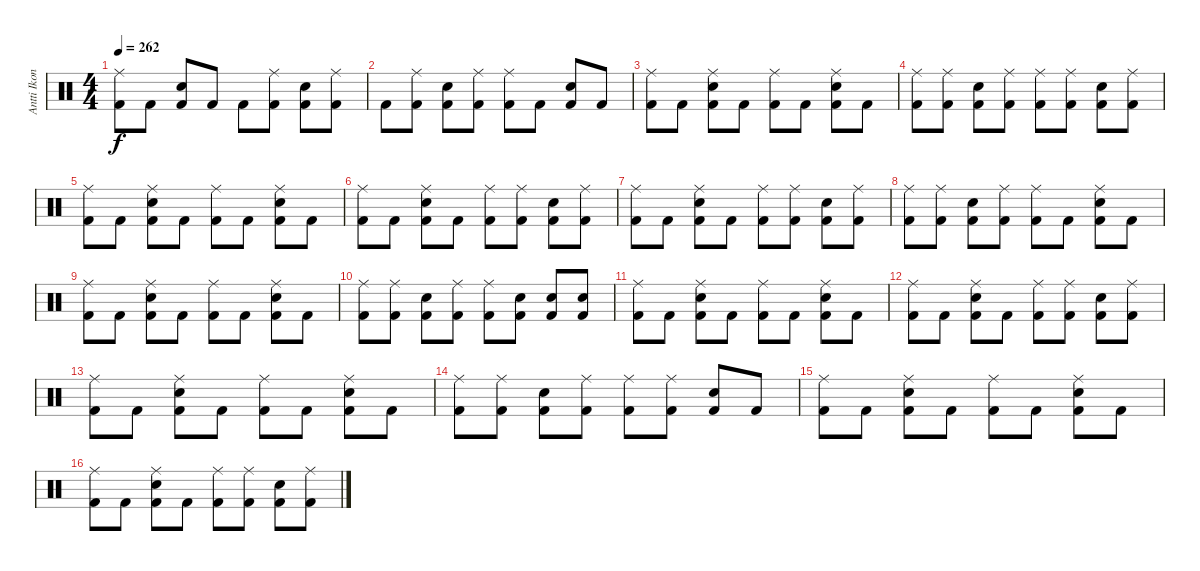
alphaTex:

\track ("Antti Ikonen" "Antti Ikon") {instrument percussion}
\staff {score}
\articulation defaults
\ts (4 4)
\tempo 262
\clef neutral
\ks c
("Ride (middle)" "Kick (hit) 2").8{dy f} "Kick (hit) 2".8 ("Electric Snare (hit)" "Kick (hit) 2").8 "Kick (hit) 2".8 "Kick (hit) 2".8 ("Ride (middle)" "Kick (hit) 2").8 ("Electric Snare (hit)" "Kick (hit) 2").8 ("Ride (middle)" "Kick (hit) 2").8 |
"Kick (hit) 2".8 ("Ride (middle)" "Kick (hit) 2").8 ("Electric Snare (hit)" "Kick (hit) 2").8 ("Ride (middle)" "Kick (hit) 2").8 ("Ride (middle)" "Kick (hit) 2").8 "Kick (hit) 2".8 ("Electric Snare (hit)" "Kick (hit) 2").8 "Kick (hit) 2".8 |
("Ride (middle)" "Kick (hit) 2").8 "Kick (hit) 2".8 ("Ride (middle)" "Electric Snare (hit)" "Kick (hit) 2").8 "Kick (hit) 2".8 ("Ride (middle)" "Kick (hit) 2").8 "Kick (hit) 2".8 ("Ride (middle)" "Electric Snare (hit)" "Kick (hit) 2").8 "Kick (hit) 2".8 |
("Ride (middle)" "Kick (hit) 2").8 ("Ride (middle)" "Kick (hit) 2").8 ("Electric Snare (hit)" "Kick (hit) 2").8 ("Ride (middle)" "Kick (hit) 2").8 ("Ride (middle)" "Kick (hit) 2").8 ("Ride (middle)" "Kick (hit) 2").8 ("Electric Snare (hit)" "Kick (hit) 2").8 ("Ride (middle)" "Kick (hit) 2").8 |
("Ride (middle)" "Kick (hit) 2").8 "Kick (hit) 2".8 ("Ride (middle)" "Electric Snare (hit)" "Kick (hit) 2").8 "Kick (hit) 2".8 ("Ride (middle)" "Kick (hit) 2").8 "Kick (hit) 2".8 ("Ride (middle)" "Electric Snare (hit)" "Kick (hit) 2").8 "Kick (hit) 2".8 |
("Ride (middle)" "Kick (hit) 2").8 "Kick (hit) 2".8 ("Ride (middle)" "Electric Snare (hit)" "Kick (hit) 2").8 "Kick (hit) 2".8 ("Ride (middle)" "Kick (hit) 2").8 ("Ride (middle)" "Kick (hit) 2").8 ("Electric Snare (hit)" "Kick (hit) 2").8 ("Ride (middle)" "Kick (hit) 2").8 |
("Ride (middle)" "Kick (hit) 2").8 "Kick (hit) 2".8 ("Ride (middle)" "Electric Snare (hit)" "Kick (hit) 2").8 "Kick (hit) 2".8 ("Ride (middle)" "Kick (hit) 2").8 ("Ride (middle)" "Kick (hit) 2").8 ("Electric Snare (hit)" "Kick (hit) 2").8 ("Ride (middle)" "Kick (hit) 2").8 |
("Ride (middle)" "Kick (hit) 2").8 ("Ride (middle)" "Kick (hit) 2").8 ("Electric Snare (hit)" "Kick (hit) 2").8 ("Ride (middle)" "Kick (hit) 2").8 ("Ride (middle)" "Kick (hit) 2").8 "Kick (hit) 2".8 ("Ride (middle)" "Electric Snare (hit)" "Kick (hit) 2").8 "Kick (hit) 2".8 |
("Ride (middle)" "Kick (hit) 2").8 "Kick (hit) 2".8 ("Ride (middle)" "Electric Snare (hit)" "Kick (hit) 2").8 "Kick (hit) 2".8 ("Ride (middle)" "Kick (hit) 2").8 "Kick (hit) 2".8 ("Ride (middle)" "Electric Snare (hit)" "Kick (hit) 2").8 "Kick (hit) 2".8 |
("Ride (middle)" "Kick (hit) 2").8 ("Ride (middle)" "Kick (hit) 2").8 ("Electric Snare (hit)" "Kick (hit) 2").8 ("Ride (middle)" "Kick (hit) 2").8 ("Ride (middle)" "Kick (hit) 2").8 ("Electric Snare (hit)" "Kick (hit) 2").8 ("Electric Snare (hit)" "Kick (hit) 2").8 ("Electric Snare (hit)" "Kick (hit) 2").8 |
("Ride (middle)" "Kick (hit) 2").8 "Kick (hit) 2".8 ("Ride (middle)" "Electric Snare (hit)" "Kick (hit) 2").8 "Kick (hit) 2".8 ("Ride (middle)" "Kick (hit) 2").8 "Kick (hit) 2".8 ("Ride (middle)" "Electric Snare (hit)" "Kick (hit) 2").8 "Kick (hit) 2".8 |
("Ride (middle)" "Kick (hit) 2").8 "Kick (hit) 2".8 ("Ride (middle)" "Electric Snare (hit)" "Kick (hit) 2").8 "Kick (hit) 2".8 ("Ride (middle)" "Kick (hit) 2").8 ("Ride (middle)" "Kick (hit) 2").8 ("Electric Snare (hit)" "Kick (hit) 2").8 ("Ride (middle)" "Kick (hit) 2").8 |
("Ride (middle)" "Kick (hit) 2").8 "Kick (hit) 2".8 ("Ride (middle)" "Electric Snare (hit)" "Kick (hit) 2").8 "Kick (hit) 2".8 ("Ride (middle)" "Kick (hit) 2").8 "Kick (hit) 2".8 ("Ride (middle)" "Electric Snare (hit)" "Kick (hit) 2").8 "Kick (hit) 2".8 |
("Ride (middle)" "Kick (hit) 2").8 ("Ride (middle)" "Kick (hit) 2").8 ("Electric Snare (hit)" "Kick (hit) 2").8 ("Ride (middle)" "Kick (hit) 2").8 ("Ride (middle)" "Kick (hit) 2").8 ("Ride (middle)" "Kick (hit) 2").8 ("Electric Snare (hit)" "Kick (hit) 2").8 "Kick (hit) 2".8 |
("Ride (middle)" "Kick (hit) 2").8 "Kick (hit) 2".8 ("Ride (middle)" "Electric Snare (hit)" "Kick (hit) 2").8 "Kick (hit) 2".8 ("Ride (middle)" "Kick (hit) 2").8 "Kick (hit) 2".8 ("Ride (middle)" "Electric Snare (hit)" "Kick (hit) 2").8 "Kick (hit) 2".8 |
("Ride (middle)" "Kick (hit) 2").8 "Kick (hit) 2".8 ("Ride (middle)" "Electric Snare (hit)" "Kick (hit) 2").8 "Kick (hit) 2".8 ("Ride (middle)" "Kick (hit) 2").8 ("Ride (middle)" "Kick (hit) 2").8 ("Electric Snare (hit)" "Kick (hit) 2").8 ("Ride (middle)" "Kick (hit) 2").8
